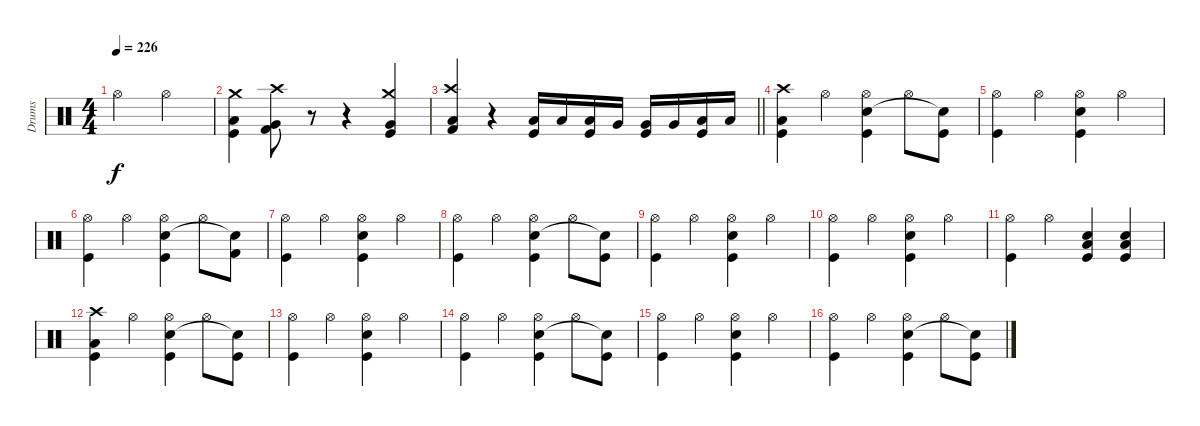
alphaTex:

\track ("Drums" "Drums") {instrument percussion}
\staff {score}
\articulation defaults
\ts (4 4)
\tempo 226
\clef neutral
\ks c "Hi-Hat (open)".2{dy f} "Hi-Hat (open)".2
|
("Kick (hit)" "Low Tom (hit)" "Crash medium (hit)").4 ("Kick (hit) 2" "Very Low Tom (hit)" "Crash high (hit)").8 r.8 r.4 ("Kick (hit)" "Very Low Tom (hit)" "Crash medium (hit)").4 |
\barLineRight lightlight
("Kick (hit) 2" "Low Floor Tom (hit)" "Crash high (hit)").4 r.4 ("Kick (hit)" "Low Floor Tom (hit)").16 "Low Floor Tom (hit)".16 ("Kick (hit)" "Low Floor Tom (hit)").16 "Very Low Tom (hit)".16 ("Kick (hit)" "Very Low Tom (hit)").16 "Very Low Tom (hit)".16 ("Kick (hit)" "Low Tom (hit)").16 "Low Tom (hit)".16 |
("Kick (hit)" "Low Tom (hit)" "Crash high (hit)").4 "Hi-Hat (open)".4 ("Kick (hit)" "Snare (hit) 2" "Hi-Hat (open)").4 "Hi-Hat (open)".8 ("Kick (hit)" "Snare (hit)"{t}).8 |
("Kick (hit)" "Hi-Hat (open)").4 "Hi-Hat (open)".4 ("Kick (hit)" "Snare (hit) 2" "Hi-Hat (open)").4 "Hi-Hat (open)".4 |
("Kick (hit)" "Hi-Hat (open)").4 "Hi-Hat (open)".4 ("Kick (hit)" "Snare (hit) 2" "Hi-Hat (open)").4 "Hi-Hat (open)".8 ("Kick (hit) 2" "Snare (hit)"{t}).8 |
("Kick (hit)" "Hi-Hat (open)").4 "Hi-Hat (open)".4 ("Kick (hit)" "Snare (hit) 2" "Hi-Hat (open)").4 "Hi-Hat (open)".4 |
("Kick (hit)" "Hi-Hat (open)").4 "Hi-Hat (open)".4 ("Kick (hit)" "Snare (hit) 2" "Hi-Hat (open)").4 "Hi-Hat (open)".8 ("Kick (hit)" "Snare (hit)"{t}).8 |
("Kick (hit)" "Hi-Hat (open)").4 "Hi-Hat (open)".4 ("Kick (hit)" "Snare (hit) 2" "Hi-Hat (open)").4 "Hi-Hat (open)".4 |
("Kick (hit)" "Hi-Hat (open)").4 "Hi-Hat (open)".4 ("Kick (hit)" "Snare (hit) 2" "Hi-Hat (open)").4 "Hi-Hat (open)".4 |
("Kick (hit)" "Hi-Hat (open)").4 "Hi-Hat (open)".4 ("Kick (hit)" "Snare (hit) 2" "Low Tom (hit)").4 ("Kick (hit)" "Electric Snare (hit)" "Low Tom (hit)").4 |
("Kick (hit)" "Low Tom (hit)" "Crash high (hit)").4 "Hi-Hat (open)".4 ("Kick (hit)" "Snare (hit) 2" "Hi-Hat (open)").4 "Hi-Hat (open)".8 ("Kick (hit)" "Snare (hit)"{t}).8 |
("Kick (hit)" "Hi-Hat (open)").4 "Hi-Hat (open)".4 ("Kick (hit)" "Snare (hit) 2" "Hi-Hat (open)").4 "Hi-Hat (open)".4 |
("Kick (hit)" "Hi-Hat (open)").4 "Hi-Hat (open)".4 ("Kick (hit)" "Snare (hit) 2" "Hi-Hat (open)").4 "Hi-Hat (open)".8 ("Kick (hit)" "Snare (hit)"{t}).8 |
("Kick (hit)" "Hi-Hat (open)").4 "Hi-Hat (open)".4 ("Kick (hit)" "Snare (hit) 2" "Hi-Hat (open)").4 "Hi-Hat (open)".4 |
("Kick (hit)" "Hi-Hat (open)").4 "Hi-Hat (open)".4 ("Kick (hit)" "Snare (hit) 2" "Hi-Hat (open)").4 "Hi-Hat (open)".8 ("Kick (hit)" "Snare (hit)"{t}).8
